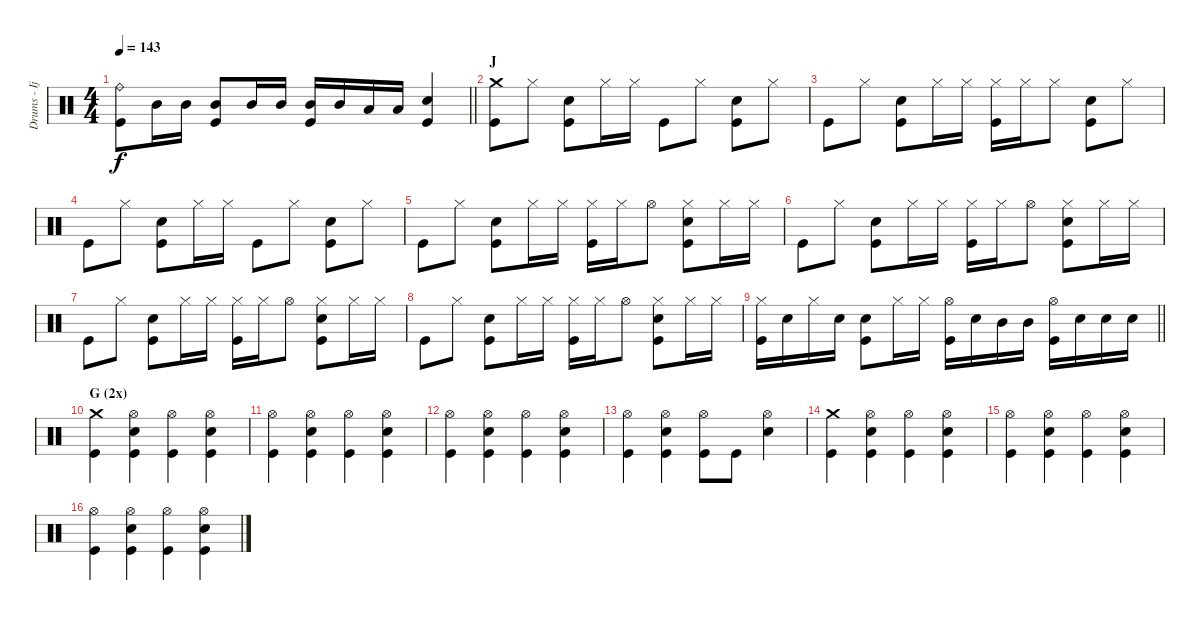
\track ("Drums - Ijichi" "Drums - Ij") {instrument percussion}
\staff {score}
\articulation defaults
\ts (4 4)
\tempo 143
\clef neutral
\barLineRight lightlight
\ks c
("Ride (bell)" "Kick (hit)").8{dy f} "Mid Tom (hit)".16 "Mid Tom (hit)".16 ("Mid Tom (hit)" "Kick (hit)").8 "Mid Tom (hit)".16 "Mid Tom (hit)".16 ("Mid Tom (hit)" "Kick (hit)").16 "Mid Tom (hit)".16 "Low Tom (hit)".16 "Low Tom (hit)".16 ("Electric Snare (hit)" "Kick (hit)").4 |
\section ("" "J")
("Crash medium (hit)" "Kick (hit)").8 "Hi-Hat (closed)".8 ("Electric Snare (hit)" "Kick (hit)").8 "Hi-Hat (closed)".16 "Hi-Hat (closed)".16 "Kick (hit)".8 "Hi-Hat (closed)".8 ("Electric Snare (hit)" "Kick (hit)").8 "Hi-Hat (closed)".8 |
"Kick (hit)".8 "Hi-Hat (closed)".8 ("Electric Snare (hit)" "Kick (hit)").8 "Hi-Hat (closed)".16 "Hi-Hat (closed)".16 ("Hi-Hat (closed)" "Kick (hit)").16 "Hi-Hat (closed)".16 "Hi-Hat (closed)".8 ("Electric Snare (hit)" "Kick (hit)").8 "Hi-Hat (closed)".8 |
"Kick (hit)".8 "Hi-Hat (closed)".8 ("Electric Snare (hit)" "Kick (hit)").8 "Hi-Hat (closed)".16 "Hi-Hat (closed)".16 "Kick (hit)".8 "Hi-Hat (closed)".8 ("Electric Snare (hit)" "Kick (hit)").8 "Hi-Hat (closed)".8 |
"Kick (hit)".8 "Hi-Hat (closed)".8 ("Electric Snare (hit)" "Kick (hit)").8 "Hi-Hat (closed)".16 "Hi-Hat (closed)".16 ("Hi-Hat (closed)" "Kick (hit)").16 "Hi-Hat (closed)".16 "Hi-Hat (open)".8 ("Hi-Hat (closed)" "Electric Snare (hit)" "Kick (hit)").8 "Hi-Hat (closed)".16 "Hi-Hat (closed)".16 |
"Kick (hit)".8 "Hi-Hat (closed)".8 ("Electric Snare (hit)" "Kick (hit)").8 "Hi-Hat (closed)".16 "Hi-Hat (closed)".16 ("Hi-Hat (closed)" "Kick (hit)").16 "Hi-Hat (closed)".16 "Hi-Hat (open)".8 ("Hi-Hat (closed)" "Electric Snare (hit)" "Kick (hit)").8 "Hi-Hat (closed)".16 "Hi-Hat (closed)".16 |
"Kick (hit)".8 "Hi-Hat (closed)".8 ("Electric Snare (hit)" "Kick (hit)").8 "Hi-Hat (closed)".16 "Hi-Hat (closed)".16 ("Hi-Hat (closed)" "Kick (hit)").16 "Hi-Hat (closed)".16 "Hi-Hat (open)".8 ("Hi-Hat (closed)" "Electric Snare (hit)" "Kick (hit)").8 "Hi-Hat (closed)".16 "Hi-Hat (closed)".16 |
"Kick (hit)".8 "Hi-Hat (closed)".8 ("Electric Snare (hit)" "Kick (hit)").8 "Hi-Hat (closed)".16 "Hi-Hat (closed)".16 ("Hi-Hat (closed)" "Kick (hit)").16 "Hi-Hat (closed)".16 "Hi-Hat (open)".8 ("Hi-Hat (closed)" "Electric Snare (hit)" "Kick (hit)").8 "Hi-Hat (closed)".16 "Hi-Hat (closed)".16 |
\barLineRight lightlight
("Hi-Hat (closed)" "Kick (hit)").16{beam Down} "Electric Snare (hit)".16{beam Down} "Hi-Hat (closed)".16{beam Down} "Electric Snare (hit)".16{beam Down} ("Electric Snare (hit)" "Kick (hit)").8 "Hi-Hat (closed)".16 "Hi-Hat (closed)".16 ("Hi-Hat (open)" "Kick (hit)").16 "Electric Snare (hit)".16 "Mid Tom (hit)".16 "Mid Tom (hit)".16 ("Hi-Hat (open)" "Kick (hit)").16 "Electric Snare (hit)".16 "Electric Snare (hit)".16 "Electric Snare (hit)".16 |
\section ("" "G (2x)")
("Crash medium (hit)" "Kick (hit)").4 ("Hi-Hat (open)" "Electric Snare (hit)" "Kick (hit)").4 ("Hi-Hat (open)" "Kick (hit)").4 ("Hi-Hat (open)" "Electric Snare (hit)" "Kick (hit)").4 |
("Hi-Hat (open)" "Kick (hit)").4 ("Hi-Hat (open)" "Electric Snare (hit)" "Kick (hit)").4 ("Hi-Hat (open)" "Kick (hit)").4 ("Hi-Hat (open)" "Electric Snare (hit)" "Kick (hit)").4 |
("Hi-Hat (open)" "Kick (hit)").4 ("Hi-Hat (open)" "Electric Snare (hit)" "Kick (hit)").4 ("Hi-Hat (open)" "Kick (hit)").4 ("Hi-Hat (open)" "Electric Snare (hit)" "Kick (hit)").4 |
("Hi-Hat (open)" "Kick (hit)").4 ("Hi-Hat (open)" "Electric Snare (hit)" "Kick (hit)").4 ("Hi-Hat (open)" "Kick (hit)").8 "Kick (hit)".8 ("Hi-Hat (open)" "Electric Snare (hit)").4 |
("Crash medium (hit)" "Kick (hit)").4 ("Hi-Hat (open)" "Electric Snare (hit)" "Kick (hit)").4 ("Hi-Hat (open)" "Kick (hit)").4 ("Hi-Hat (open)" "Electric Snare (hit)" "Kick (hit)").4 |
("Hi-Hat (open)" "Kick (hit)").4 ("Hi-Hat (open)" "Electric Snare (hit)" "Kick (hit)").4 ("Hi-Hat (open)" "Kick (hit)").4 ("Hi-Hat (open)" "Electric Snare (hit)" "Kick (hit)").4 |
("Hi-Hat (open)" "Kick (hit)").4 ("Hi-Hat (open)" "Electric Snare (hit)" "Kick (hit)").4 ("Hi-Hat (open)" "Kick (hit)").4 ("Hi-Hat (open)" "Electric Snare (hit)" "Kick (hit)").4
